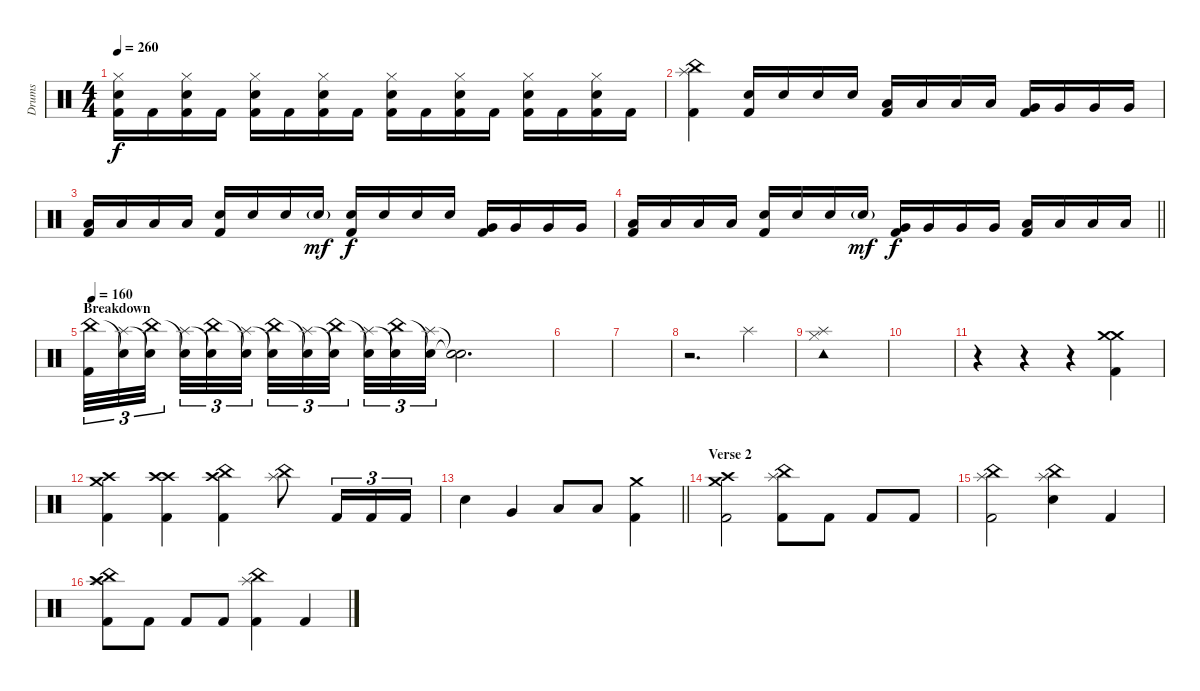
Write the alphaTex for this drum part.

\track ("Drums" "Drums") {instrument percussion}
\staff {score}
\articulation defaults
\ts (4 4)
\tempo 260
\clef neutral
\ks c
("Hi-Hat (closed)" "Electric Snare (hit)" "Kick (hit) 2").16{dy f} "Kick (hit) 2".16 ("Hi-Hat (closed)" "Electric Snare (hit)" "Kick (hit) 2").16 "Kick (hit) 2".16 ("Hi-Hat (closed)" "Electric Snare (hit)" "Kick (hit) 2").16 "Kick (hit) 2".16 ("Hi-Hat (closed)" "Electric Snare (hit)" "Kick (hit) 2").16 "Kick (hit) 2".16 ("Hi-Hat (closed)" "Electric Snare (hit)" "Kick (hit) 2").16 "Kick (hit) 2".16 ("Hi-Hat (closed)" "Electric Snare (hit)" "Kick (hit) 2").16 "Kick (hit) 2".16 ("Hi-Hat (closed)" "Electric Snare (hit)" "Kick (hit) 2").16 "Kick (hit) 2".16 ("Hi-Hat (closed)" "Electric Snare (hit)" "Kick (hit) 2").16 "Kick (hit) 2".16 |
("China (hit)" "Splash (hit)" "Kick (hit) 2").4 ("Electric Snare (hit)" "Kick (hit) 2").16 "Electric Snare (hit)".16 "Electric Snare (hit)".16 "Electric Snare (hit)".16 ("Low Tom (hit)" "Kick (hit) 2").16 "Low Tom (hit)".16 "Low Tom (hit)".16 "Low Tom (hit)".16 ("Very Low Tom (hit)" "Kick (hit) 2").16 "Very Low Tom (hit)".16 "Very Low Tom (hit)".16 "Very Low Tom (hit)".16 |
("Low Floor Tom (hit)" "Kick (hit) 2").16 "Low Floor Tom (hit)".16 "Low Floor Tom (hit)".16 "Low Floor Tom (hit)".16 ("Electric Snare (hit)" "Kick (hit) 2").16 "Electric Snare (hit)".16 "Electric Snare (hit)".16 "Electric Snare (hit)"{g}.16{dy mf} ("Electric Snare (hit)" "Kick (hit) 2").16{dy f} "Electric Snare (hit)".16 "Electric Snare (hit)".16 "Electric Snare (hit)".16 ("Very Low Tom (hit)" "Kick (hit) 2").16 "Very Low Tom (hit)".16 "Very Low Tom (hit)".16 "Very Low Tom (hit)".16 |
\barLineRight lightlight
("Low Floor Tom (hit)" "Kick (hit) 2").16 "Low Floor Tom (hit)".16 "Low Floor Tom (hit)".16 "Low Floor Tom (hit)".16 ("Electric Snare (hit)" "Kick (hit) 2").16 "Electric Snare (hit)".16 "Electric Snare (hit)".16 "Electric Snare (hit)"{g}.16{dy mf} ("Very Low Tom (hit)" "Kick (hit) 2").16{dy f} "Very Low Tom (hit)".16 "Very Low Tom (hit)".16 "Very Low Tom (hit)".16 ("Low Floor Tom (hit)" "Kick (hit) 2").16 "Low Floor Tom (hit)".16 "Low Floor Tom (hit)".16 "Low Floor Tom (hit)".16 |
\section ("" "Breakdown")
\tempo 160
("China (hit)" "Kick (hit) 2").32{tu (3 2)} ("Snare (hit)"{t} "Splash (hit)").32{tu (3 2)} ("China (hit)" "Snare (hit)"{t}).32{tu (3 2) beam splitsecondary} ("Snare (hit)"{t} "Splash (hit)").32{tu (3 2)} ("China (hit)" "Snare (hit)"{t}).32{tu (3 2)} ("Snare (hit)"{t} "Splash (hit)").32{tu (3 2) beam splitsecondary} ("China (hit)" "Snare (hit)"{t}).32{tu (3 2)} ("Snare (hit)"{t} "Splash (hit)").32{tu (3 2)} ("China (hit)" "Snare (hit)"{t}).32{tu (3 2) beam splitsecondary} ("Snare (hit)"{t} "Splash (hit)").32{tu (3 2)} ("China (hit)" "Snare (hit)"{t}).32{tu (3 2)} ("Snare (hit)"{t} "Splash (hit)").32{tu (3 2)} ("Snare (hit)"{t} "Snare (hit)"{t}).2{d} |
|
|
r.2{d} "Splash (hit)".4 |
("Splash (hit)" "Tambourine (hit)" "Hi-Hat (closed)").1 |
|
r.4 r.4 r.4 ("Crash medium (hit)" "Crash medium (hit)" "Kick (hit) 2").4 |
("Crash high (hit)" "Crash medium (hit)" "Kick (hit) 2").4 ("Crash high (hit)" "Crash high (hit)" "Kick (hit) 2").4 ("Crash high (hit)" "China (hit)" "Kick (hit) 2").4 ("China (hit)" "Splash (hit)").8 "Kick (hit) 2".16{tu (3 2)} "Kick (hit) 2".16{tu (3 2)} "Kick (hit) 2".16{tu (3 2)} |
\barLineRight lightlight "Electric Snare (hit)".4 "Very Low Tom (hit)".4 "Low Tom (hit)".8 "Low Tom (hit)".8
("Crash medium (hit)" "Kick (hit) 2").4 |
\section ("" "Verse 2")
("Crash high (hit)" "Crash medium (hit)" "Kick (hit) 2").2 ("China (hit)" "Splash (hit)" "Kick (hit) 2").8 "Kick (hit) 2".8 "Kick (hit) 2".8 "Kick (hit) 2".8 |
("China (hit)" "Splash (hit)" "Kick (hit) 2").2 ("China (hit)" "Splash (hit)" "Electric Snare (hit)").4 "Kick (hit) 2".4 |
("Crash high (hit)" "China (hit)" "Splash (hit)" "Kick (hit) 2").8 "Kick (hit) 2".8 "Kick (hit) 2".8 "Kick (hit) 2".8 ("China (hit)" "Splash (hit)" "Kick (hit) 2").4 "Kick (hit) 2".4
